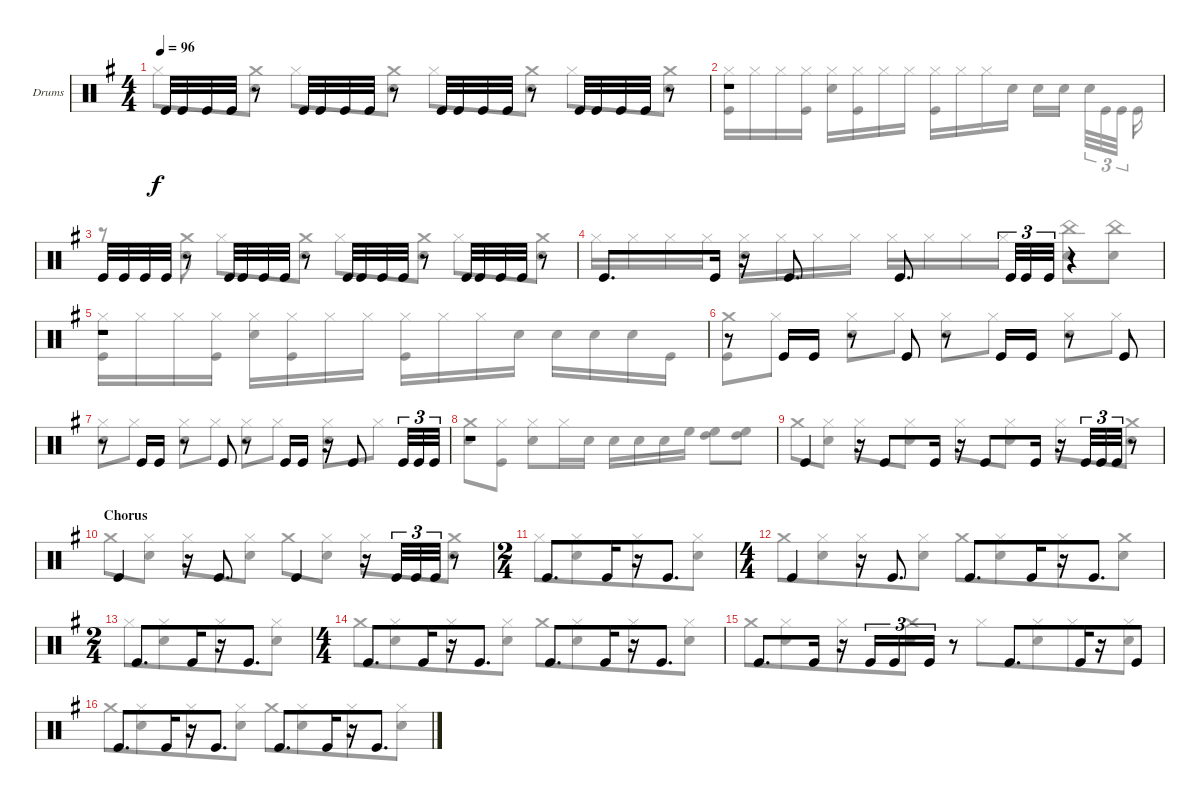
\bracketExtendMode groupsimilarinstruments
\firstSystemTrackNameOrientation horizontal
\otherSystemsTrackNameOrientation horizontal
\track ("Drumkit" "Drums") {instrument percussion}
\staff {score}
\articulation defaults
\voice
\ts (4 4)
\tempo 96
\clef neutral
\scale
1.04288
\ks g "Kick (hit)".32{dy f} "Kick (hit)".32 "Kick (hit)".32 "Kick (hit)".32
r.8 "Kick (hit)".32 "Kick (hit)".32 "Kick (hit)".32 "Kick (hit)".32 r.8 "Kick (hit)".32 "Kick (hit)".32 "Kick (hit)".32 "Kick (hit)".32 r.8 "Kick (hit)".32 "Kick (hit)".32 "Kick (hit)".32 "Kick (hit)".32 r.8 |
\scale
0.957125 r.1 |
\scale
1.04288 "Kick (hit)".32 "Kick (hit)".32 "Kick (hit)".32 "Kick (hit)".32 r.8 "Kick (hit)".32 "Kick (hit)".32 "Kick (hit)".32 "Kick (hit)".32 r.8 "Kick (hit)".32 "Kick (hit)".32 "Kick (hit)".32 "Kick (hit)".32 r.8 "Kick (hit)".32 "Kick (hit)".32 "Kick (hit)".32 "Kick (hit)".32 r.8 |
\scale
0.957125 "Kick (hit)".8{d} "Kick (hit)".16 r.16 "Kick (hit)".8{d} "Kick (hit)".8{d} "Kick (hit)".32{tu (3 2)} "Kick (hit)".32{tu (3 2)} "Kick (hit)".32{tu (3 2)} r.4 |
\scale
1.04288 r.1 |
\scale
0.957125 r.8 "Kick (hit)".16 "Kick (hit)".16 r.8 "Kick (hit)".8 r.8 "Kick (hit)".16 "Kick (hit)".16 r.8 "Kick (hit)".8 |
\scale
1.04288 r.8 "Kick (hit)".16 "Kick (hit)".16 r.8 "Kick (hit)".8 r.8 "Kick (hit)".16 "Kick (hit)".16 r.16 "Kick (hit)".8 "Kick (hit)".32{tu (3 2)} "Kick (hit)".32{tu (3 2)} "Kick (hit)".32{tu (3 2)} |
\scale
0.957125 r.1 |
\scale
1.04288 "Kick (hit)".4 r.16 "Kick (hit)".8 "Kick (hit)".16 r.16 "Kick (hit)".8 "Kick (hit)".16 r.16 "Kick (hit)".32{tu (3 2)} "Kick (hit)".32{tu (3 2)} "Kick (hit)".32{tu (3 2)} r.8 |
\section ("" "Chorus")
\scale
0.957125 "Kick (hit)".4 r.16 "Kick (hit)".8{d} "Kick (hit)".4 r.16 "Kick (hit)".32{tu (3 2)} "Kick (hit)".32{tu (3 2)} "Kick (hit)".32{tu (3 2)} r.8 |
\ts (2 4)
\beaming (8 4 4)
\scale
1.07314 "Kick (hit)".8{d} "Kick (hit)".16 r.16 "Kick (hit)".8{d} |
\ts (4 4)
\beaming (8 4 4)
\scale
0.92686 "Kick (hit)".4 r.16 "Kick (hit)".8{d} "Kick (hit)".8{d} "Kick (hit)".16 r.16 "Kick (hit)".8{d} |
\ts (2 4)
\beaming (8 4 4)
\scale
1.07314 "Kick (hit)".8{d} "Kick (hit)".16 r.16 "Kick (hit)".8{d} |
\ts (4 4)
\beaming (8 4 4)
\scale
0.92686 "Kick (hit)".8{d} "Kick (hit)".16 r.16 "Kick (hit)".8{d} "Kick (hit)".8{d} "Kick (hit)".16 r.16 "Kick (hit)".8{d} |
\scale
1.04288 "Kick (hit)".8{d} "Kick (hit)".16 r.16 "Kick (hit)".16{tu (3 2)} "Kick (hit)".16{tu (3 2)} "Kick (hit)".16{tu (3 2)} r.8 "Kick (hit)".8{d} "Kick (hit)".16 r.16 "Kick (hit)".8 |
\scale
0.957125 "Kick (hit)".8{d} "Kick (hit)".16 r.16 "Kick (hit)".8{d} "Kick (hit)".8{d} "Kick (hit)".16 r.16 "Kick (hit)".8{d}
\voice
\clef neutral
\ottava regular
\simile none
\scale
1.04288
\ks g "Hi-Hat (closed)".8{dy f}
("Crash medium (hit)" "Snare (hit) 2").8 "Hi-Hat (closed)".8 ("Crash medium (hit)" "Snare (hit) 2").8 "Hi-Hat (closed)".8 ("Crash medium (hit)" "Snare (hit) 2").8 "Hi-Hat (closed)".8 ("Crash medium (hit)" "Snare (hit) 2").8 |
\scale
0.957125 ("Hi-Hat (closed)" "Kick (hit)").16 "Hi-Hat (closed)".16 "Hi-Hat (closed)".16 ("Hi-Hat (closed)" "Kick (hit)").16 ("Hi-Hat (closed)" "Snare (hit) 2").16 ("Hi-Hat (closed)" "Kick (hit)").16 "Hi-Hat (closed)".16 "Hi-Hat (closed)".16 ("Hi-Hat (closed)" "Kick (hit)").16 "Hi-Hat (closed)".16 "Hi-Hat (closed)".16 "Snare (hit) 2".16 "Snare (hit) 2".16 "Snare (hit) 2".16 "Snare (hit) 2".32{tu (3 2)} "Kick (hit)".32{tu (3 2)} "Kick (hit)".32{tu (3 2)} "Kick (hit)".16 |
\scale
1.04288 r.8 ("Crash medium (hit)" "Snare (hit) 2").8 "Hi-Hat (closed)".8 ("Crash medium (hit)" "Snare (hit) 2").8 "Hi-Hat (closed)".8 ("Crash medium (hit)" "Snare (hit) 2").8 "Hi-Hat (closed)".8 ("Crash medium (hit)" "Snare (hit) 2").8 |
\scale
0.957125 "Hi-Hat (closed)".16 "Hi-Hat (closed)".16 "Hi-Hat (closed)".16 "Hi-Hat (closed)".16 ("Hi-Hat (closed)" "Snare (hit) 2").16 "Hi-Hat (closed)".16 "Hi-Hat (closed)".16 "Hi-Hat (closed)".16 "Hi-Hat (closed)".16 "Hi-Hat (closed)".16 "Hi-Hat (closed)".16 "Hi-Hat (closed)".16 ("China (hit)" "Snare (hit) 2").8 ("China (hit)" "Snare (hit) 2").8 |
\scale
1.04288 ("Hi-Hat (closed)" "Kick (hit)").16 "Hi-Hat (closed)".16 "Hi-Hat (closed)".16 ("Hi-Hat (closed)" "Kick (hit)").16 ("Hi-Hat (closed)" "Snare (hit) 2").16 ("Hi-Hat (closed)" "Kick (hit)").16 "Hi-Hat (closed)".16 "Hi-Hat (closed)".16 ("Hi-Hat (closed)" "Kick (hit)").16 "Hi-Hat (closed)".16 "Hi-Hat (closed)".16 "Snare (hit) 2".16 "Snare (hit) 2".16 "Snare (hit) 2".16 "Snare (hit) 2".16 "Kick (hit)".16 |
\scale
0.957125 ("Crash medium (hit)" "Kick (hit)").8 "Hi-Hat (closed)".8 ("Hi-Hat (closed)" "Snare (hit) 2").8 "Hi-Hat (closed)".8 ("Hi-Hat (closed)" "Snare (hit) 2").8 "Hi-Hat (closed)".8 ("Hi-Hat (closed)" "Snare (hit) 2").8 "Hi-Hat (closed)".8 |
\scale
1.04288 ("Hi-Hat (closed)" "Snare (hit) 2").8 "Hi-Hat (closed)".8 ("Hi-Hat (closed)" "Snare (hit) 2").8 "Hi-Hat (closed)".8 ("Hi-Hat (closed)" "Snare (hit) 2").8 "Hi-Hat (closed)".8 ("Hi-Hat (closed)" "Snare (hit) 2").8 "Hi-Hat (closed)".8 |
\scale
0.957125 ("Crash medium (hit)" "Snare (hit) 2").8 ("Hi-Hat (closed)" "Kick (hit)").8 ("Hi-Hat (closed)" "Snare (hit) 2").8 "Hi-Hat (closed)".16 "Snare (hit) 2".16 "Snare (hit) 2".16 "Snare (hit) 2".16 "Snare (hit) 2".16 "High Floor Tom (hit)".16 ("High Floor Tom (hit)" "High Tom (hit)").8 ("High Floor Tom (hit)" "High Tom (hit)").8 |
\scale
1.04288 "Crash medium (hit)".8 ("Hi-Hat (closed)" "Snare (hit) 2").8 "Hi-Hat (closed)".8 ("Hi-Hat (closed)" "Snare (hit) 2").8 "Hi-Hat (closed)".8 ("Hi-Hat (closed)" "Snare (hit) 2").8 "Hi-Hat (closed)".8 ("Crash medium (hit)" "Snare (hit) 2").8 |
\scale
0.957125 "Crash medium (hit)".8 ("Hi-Hat (closed)" "Snare (hit) 2").8 "Hi-Hat (closed)".8 ("Hi-Hat (closed)" "Snare (hit) 2").8 "Crash medium (hit)".8 ("Hi-Hat (closed)" "Snare (hit) 2").8 "Hi-Hat (closed)".8 ("Crash medium (hit)" "Snare (hit) 2").8 |
\scale
1.07314 "Hi-Hat (closed)".8 ("Hi-Hat (closed)" "Snare (hit) 2").8 "Hi-Hat (closed)".8 ("Hi-Hat (closed)" "Snare (hit) 2").8 |
\scale
0.92686 "Crash medium (hit)".8 ("Hi-Hat (closed)" "Snare (hit) 2").8 "Hi-Hat (closed)".8 ("Hi-Hat (closed)" "Snare (hit) 2").8 "Crash medium (hit)".8 ("Hi-Hat (closed)" "Snare (hit) 2").8 "Hi-Hat (closed)".8 ("Crash medium (hit)" "Snare (hit) 2").8 |
\scale
1.07314 "Hi-Hat (closed)".8 ("Hi-Hat (closed)" "Snare (hit) 2").8 "Hi-Hat (closed)".8 ("Hi-Hat (closed)" "Snare (hit) 2").8 |
\scale
0.92686 "Crash medium (hit)".8 ("Hi-Hat (closed)" "Snare (hit) 2").8 "Hi-Hat (closed)".8 ("Hi-Hat (closed)" "Snare (hit) 2").8 "Crash medium (hit)".8 ("Hi-Hat (closed)" "Snare (hit) 2").8 "Hi-Hat (closed)".8 ("Hi-Hat (closed)" "Snare (hit) 2").8 |
\scale
1.04288 "Crash medium (hit)".8 ("Hi-Hat (closed)" "Snare (hit) 2").8 "Hi-Hat (closed)".8 ("Crash medium (hit)" "Snare (hit) 2").8 "Hi-Hat (closed)".8 ("Hi-Hat (closed)" "Snare (hit) 2").8 "Hi-Hat (closed)".8 ("Hi-Hat (closed)" "Snare (hit) 2").8 |
\scale
0.957125 "Crash medium (hit)".8 ("Hi-Hat (closed)" "Snare (hit) 2").8 "Hi-Hat (closed)".8 ("Hi-Hat (closed)" "Snare (hit) 2").8 "Crash medium (hit)".8 ("Hi-Hat (closed)" "Snare (hit) 2").8 "Hi-Hat (closed)".8 ("Hi-Hat (closed)" "Snare (hit) 2").8
